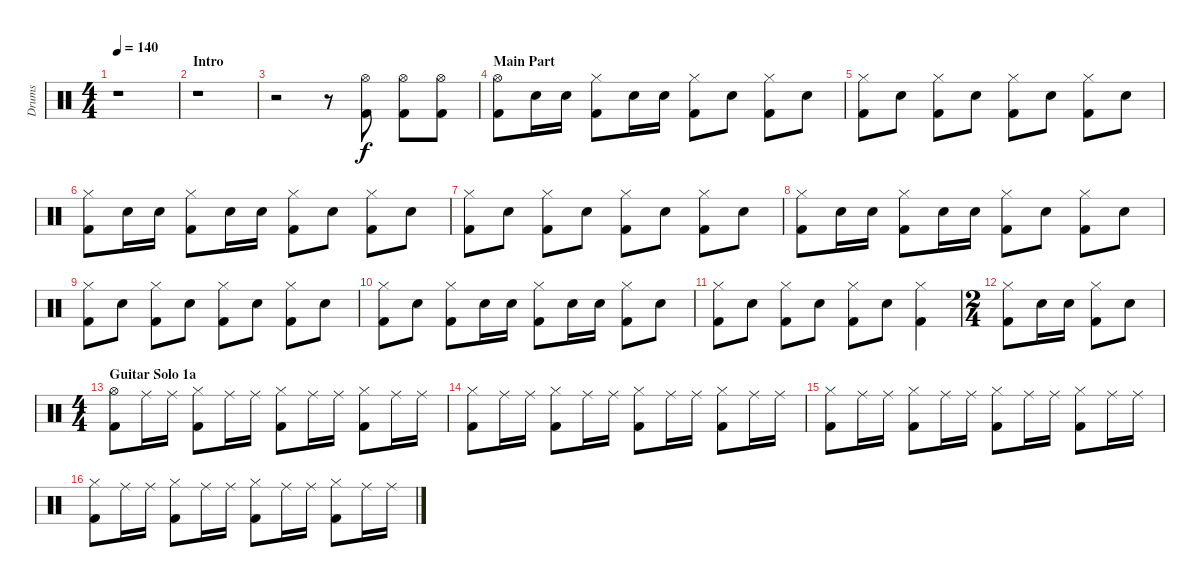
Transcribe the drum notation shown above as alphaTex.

\track ("Drums" "Drums") {instrument percussion}
\staff {score}
\articulation defaults
\ts (4 4)
\tempo 140
\clef neutral
\ks c
r.1{dy f} |
\section ("" "Intro")
r.1 |
r.2 r.8 ("Hi-Hat (open)" "Kick (hit) 2").8 ("Hi-Hat (open)" "Kick (hit) 2").8 ("Hi-Hat (open)" "Kick (hit) 2").8 |
\section ("" "Main Part")
("Hi-Hat (open)" "Kick (hit) 2").8 "Snare (hit) 2".16 "Snare (hit) 2".16 ("Hi-Hat (closed)" "Kick (hit) 2").8 "Snare (hit) 2".16 "Snare (hit) 2".16 ("Hi-Hat (closed)" "Kick (hit) 2").8 "Snare (hit) 2".8 ("Hi-Hat (closed)" "Kick (hit) 2").8 "Snare (hit) 2".8 |
("Hi-Hat (closed)" "Kick (hit) 2").8 "Snare (hit) 2".8 ("Hi-Hat (closed)" "Kick (hit) 2").8 "Snare (hit) 2".8 ("Hi-Hat (closed)" "Kick (hit) 2").8 "Snare (hit) 2".8 ("Hi-Hat (closed)" "Kick (hit) 2").8 "Snare (hit) 2".8 |
("Hi-Hat (closed)" "Kick (hit) 2").8 "Snare (hit) 2".16 "Snare (hit) 2".16 ("Hi-Hat (closed)" "Kick (hit) 2").8 "Snare (hit) 2".16 "Snare (hit) 2".16 ("Hi-Hat (closed)" "Kick (hit) 2").8 "Snare (hit) 2".8 ("Hi-Hat (closed)" "Kick (hit) 2").8 "Snare (hit) 2".8 |
("Hi-Hat (closed)" "Kick (hit) 2").8 "Snare (hit) 2".8 ("Hi-Hat (closed)" "Kick (hit) 2").8 "Snare (hit) 2".8 ("Hi-Hat (closed)" "Kick (hit) 2").8 "Snare (hit) 2".8 ("Hi-Hat (closed)" "Kick (hit) 2").8 "Snare (hit) 2".8 |
("Hi-Hat (closed)" "Kick (hit) 2").8 "Snare (hit) 2".16 "Snare (hit) 2".16 ("Hi-Hat (closed)" "Kick (hit) 2").8 "Snare (hit) 2".16 "Snare (hit) 2".16 ("Hi-Hat (closed)" "Kick (hit) 2").8 "Snare (hit) 2".8 ("Hi-Hat (closed)" "Kick (hit) 2").8 "Snare (hit) 2".8 |
("Hi-Hat (closed)" "Kick (hit) 2").8 "Snare (hit) 2".8 ("Hi-Hat (closed)" "Kick (hit) 2").8 "Snare (hit) 2".8 ("Hi-Hat (closed)" "Kick (hit) 2").8 "Snare (hit) 2".8 ("Hi-Hat (closed)" "Kick (hit) 2").8 "Snare (hit) 2".8 |
("Hi-Hat (closed)" "Kick (hit) 2").8 "Snare (hit) 2".8 ("Hi-Hat (closed)" "Kick (hit) 2").8 "Snare (hit) 2".16 "Snare (hit) 2".16 ("Hi-Hat (closed)" "Kick (hit) 2").8 "Snare (hit) 2".16 "Snare (hit) 2".16 ("Hi-Hat (closed)" "Kick (hit) 2").8 "Snare (hit) 2".8 |
("Hi-Hat (closed)" "Kick (hit) 2").8 "Snare (hit) 2".8 ("Hi-Hat (closed)" "Kick (hit) 2").8 "Snare (hit) 2".8 ("Hi-Hat (closed)" "Kick (hit) 2").8 "Snare (hit) 2".8 ("Hi-Hat (closed)" "Kick (hit) 2").4 |
\ts (2 4)
("Hi-Hat (closed)" "Kick (hit) 2").8 "Snare (hit) 2".16 "Snare (hit) 2".16 ("Hi-Hat (closed)" "Kick (hit) 2").8 "Snare (hit) 2".8 |
\ts (4 4)
\section ("" "Guitar Solo 1a")
("Hi-Hat (open)" "Kick (hit) 2").8 "Ride (middle)".16 "Ride (middle)".16 ("Hi-Hat (closed)" "Kick (hit) 2").8 "Ride (middle)".16 "Ride (middle)".16 ("Hi-Hat (closed)" "Kick (hit) 2").8 "Ride (middle)".16 "Ride (middle)".16 ("Hi-Hat (closed)" "Kick (hit) 2").8 "Ride (middle)".16 "Ride (middle)".16 |
("Hi-Hat (closed)" "Kick (hit) 2").8 "Ride (middle)".16 "Ride (middle)".16 ("Hi-Hat (closed)" "Kick (hit) 2").8 "Ride (middle)".16 "Ride (middle)".16 ("Hi-Hat (closed)" "Kick (hit) 2").8 "Ride (middle)".16 "Ride (middle)".16 ("Hi-Hat (closed)" "Kick (hit) 2").8 "Ride (middle)".16 "Ride (middle)".16 |
("Hi-Hat (closed)" "Kick (hit) 2").8 "Ride (middle)".16 "Ride (middle)".16 ("Hi-Hat (closed)" "Kick (hit) 2").8 "Ride (middle)".16 "Ride (middle)".16 ("Hi-Hat (closed)" "Kick (hit) 2").8 "Ride (middle)".16 "Ride (middle)".16 ("Hi-Hat (closed)" "Kick (hit) 2").8 "Ride (middle)".16 "Ride (middle)".16 |
("Hi-Hat (closed)" "Kick (hit) 2").8 "Ride (middle)".16 "Ride (middle)".16 ("Hi-Hat (closed)" "Kick (hit) 2").8 "Ride (middle)".16 "Ride (middle)".16 ("Hi-Hat (closed)" "Kick (hit) 2").8 "Ride (middle)".16 "Ride (middle)".16 ("Hi-Hat (closed)" "Kick (hit) 2").8 "Ride (middle)".16 "Ride (middle)".16
